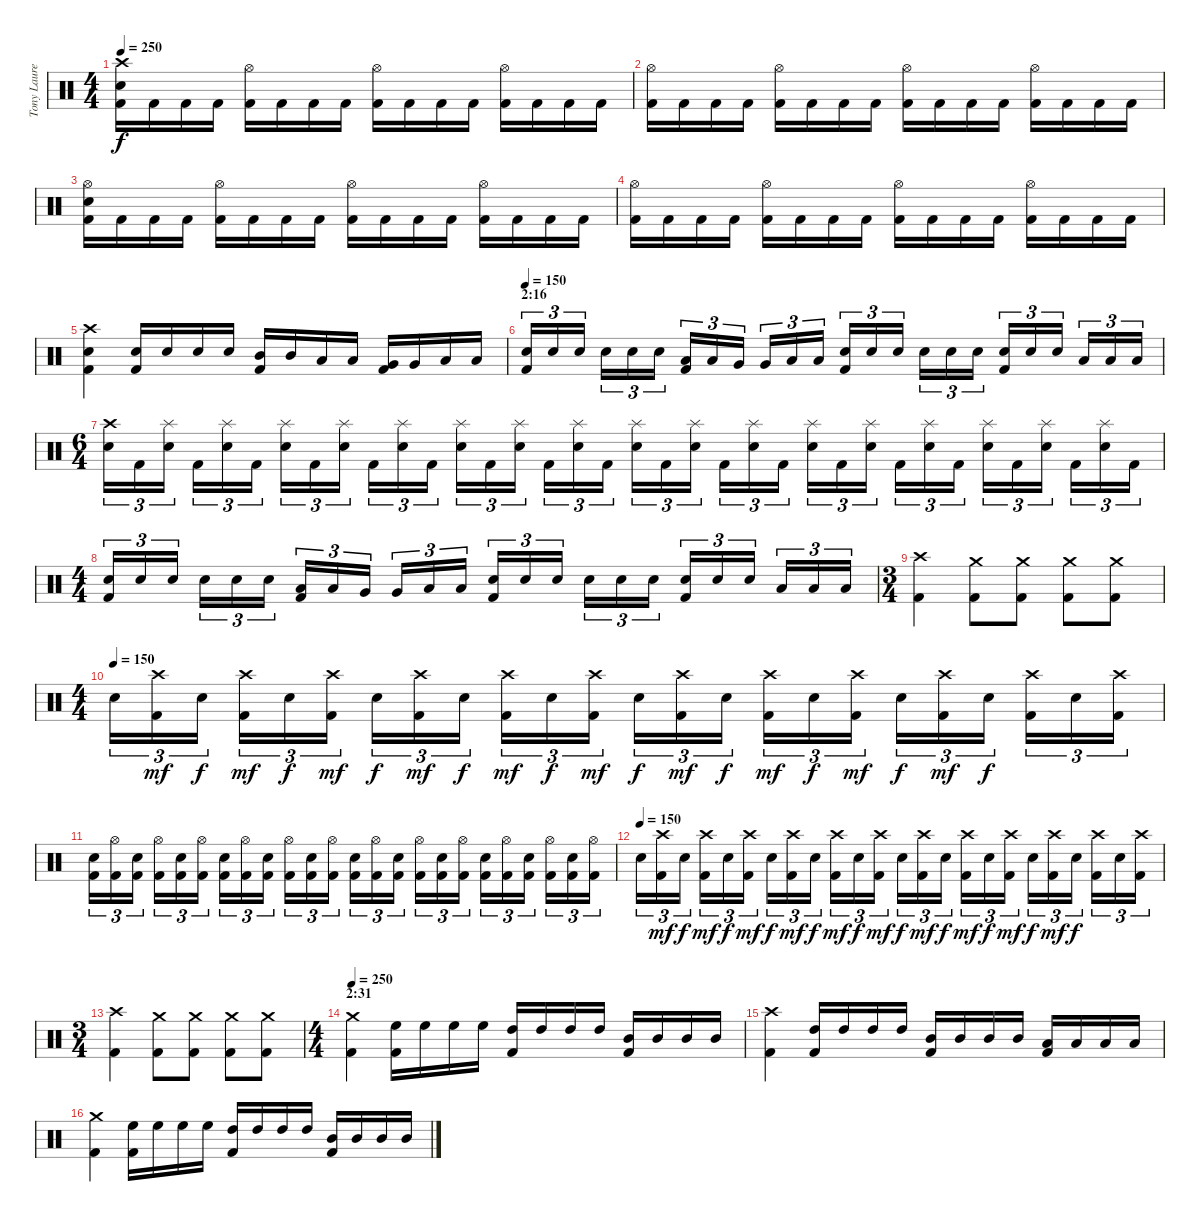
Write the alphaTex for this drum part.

\track ("Tony Laureano" "Tony Laure") {instrument percussion}
\staff {score}
\articulation defaults
\ts (4 4)
\tempo 250
\clef neutral
\ks c
("Crash high (hit)" "Electric Snare (hit)" "Kick (hit) 2").16{dy f} "Kick (hit) 2".16 "Kick (hit) 2".16 "Kick (hit) 2".16 ("Hi-Hat (open)" "Kick (hit) 2").16 "Kick (hit) 2".16 "Kick (hit) 2".16 "Kick (hit) 2".16 ("Hi-Hat (open)" "Kick (hit) 2").16 "Kick (hit) 2".16 "Kick (hit) 2".16 "Kick (hit) 2".16 ("Hi-Hat (open)" "Kick (hit) 2").16 "Kick (hit) 2".16 "Kick (hit) 2".16 "Kick (hit) 2".16 |
("Hi-Hat (open)" "Kick (hit) 2").16 "Kick (hit) 2".16 "Kick (hit) 2".16 "Kick (hit) 2".16 ("Hi-Hat (open)" "Kick (hit) 2").16 "Kick (hit) 2".16 "Kick (hit) 2".16 "Kick (hit) 2".16 ("Hi-Hat (open)" "Kick (hit) 2").16 "Kick (hit) 2".16 "Kick (hit) 2".16 "Kick (hit) 2".16 ("Hi-Hat (open)" "Kick (hit) 2").16 "Kick (hit) 2".16 "Kick (hit) 2".16 "Kick (hit) 2".16 |
("Hi-Hat (open)" "Electric Snare (hit)" "Kick (hit) 2").16 "Kick (hit) 2".16 "Kick (hit) 2".16 "Kick (hit) 2".16 ("Hi-Hat (open)" "Kick (hit) 2").16 "Kick (hit) 2".16 "Kick (hit) 2".16 "Kick (hit) 2".16 ("Hi-Hat (open)" "Kick (hit) 2").16 "Kick (hit) 2".16 "Kick (hit) 2".16 "Kick (hit) 2".16 ("Hi-Hat (open)" "Kick (hit) 2").16 "Kick (hit) 2".16 "Kick (hit) 2".16 "Kick (hit) 2".16 |
("Hi-Hat (open)" "Kick (hit) 2").16 "Kick (hit) 2".16 "Kick (hit) 2".16 "Kick (hit) 2".16 ("Hi-Hat (open)" "Kick (hit) 2").16 "Kick (hit) 2".16 "Kick (hit) 2".16 "Kick (hit) 2".16 ("Hi-Hat (open)" "Kick (hit) 2").16 "Kick (hit) 2".16 "Kick (hit) 2".16 "Kick (hit) 2".16 ("Hi-Hat (open)" "Kick (hit) 2").16 "Kick (hit) 2".16 "Kick (hit) 2".16 "Kick (hit) 2".16 |
("Crash high (hit)" "Electric Snare (hit)" "Kick (hit) 2").4 ("Electric Snare (hit)" "Kick (hit) 2").16 "Electric Snare (hit)".16 "Electric Snare (hit)".16 "Electric Snare (hit)".16 ("Mid Tom (hit)" "Kick (hit) 2").16 "Mid Tom (hit)".16 "Low Tom (hit)".16 "Low Tom (hit)".16 ("Very Low Tom (hit)" "Kick (hit) 2").16 "Very Low Tom (hit)".16 "Low Floor Tom (hit)".16 "Low Floor Tom (hit)".16 |
\section ("" "2:16")
\tempo 150
("Electric Snare (hit)" "Kick (hit) 2").16{tu (3 2)} "Electric Snare (hit)".16{tu (3 2)} "Electric Snare (hit)".16{tu (3 2)} "Electric Snare (hit)".16{tu (3 2)} "Electric Snare (hit)".16{tu (3 2)} "Electric Snare (hit)".16{tu (3 2)} ("Low Tom (hit)" "Kick (hit) 2").16{tu (3 2)} "Low Tom (hit)".16{tu (3 2)} "Very Low Tom (hit)".16{tu (3 2)} "Very Low Tom (hit)".16{tu (3 2)} "Low Floor Tom (hit)".16{tu (3 2)} "Low Floor Tom (hit)".16{tu (3 2)} ("Electric Snare (hit)" "Kick (hit) 2").16{tu (3 2)} "Electric Snare (hit)".16{tu (3 2)} "Electric Snare (hit)".16{tu (3 2)} "Electric Snare (hit)".16{tu (3 2)} "Electric Snare (hit)".16{tu (3 2)} "Electric Snare (hit)".16{tu (3 2)} ("Electric Snare (hit)" "Kick (hit) 2").16{tu (3 2)} "Electric Snare (hit)".16{tu (3 2)} "Electric Snare (hit)".16{tu (3 2)} "Low Floor Tom (hit)".16{tu (3 2)} "Low Floor Tom (hit)".16{tu (3 2)} "Low Floor Tom (hit)".16{tu (3 2)} |
\ts (6 4)
("Crash high (hit)" "Electric Snare (hit)").16{tu (3 2)} "Kick (hit) 2".16{tu (3 2)} ("Splash (hit)" "Electric Snare (hit)").16{tu (3 2)} "Kick (hit) 2".16{tu (3 2)} ("Splash (hit)" "Electric Snare (hit)").16{tu (3 2)} "Kick (hit) 2".16{tu (3 2)} ("Splash (hit)" "Electric Snare (hit)").16{tu (3 2)} "Kick (hit) 2".16{tu (3 2)} ("Splash (hit)" "Electric Snare (hit)").16{tu (3 2)} "Kick (hit) 2".16{tu (3 2)} ("Splash (hit)" "Electric Snare (hit)").16{tu (3 2)} "Kick (hit) 2".16{tu (3 2)} ("Splash (hit)" "Electric Snare (hit)").16{tu (3 2)} "Kick (hit) 2".16{tu (3 2)} ("Splash (hit)" "Electric Snare (hit)").16{tu (3 2)} "Kick (hit) 2".16{tu (3 2)} ("Splash (hit)" "Electric Snare (hit)").16{tu (3 2)} "Kick (hit) 2".16{tu (3 2)} ("Splash (hit)" "Electric Snare (hit)").16{tu (3 2)} "Kick (hit) 2".16{tu (3 2)} ("Splash (hit)" "Electric Snare (hit)").16{tu (3 2)} "Kick (hit) 2".16{tu (3 2)} ("Splash (hit)" "Electric Snare (hit)").16{tu (3 2)} "Kick (hit) 2".16{tu (3 2)} ("Splash (hit)" "Electric Snare (hit)").16{tu (3 2)} "Kick (hit) 2".16{tu (3 2)} ("Splash (hit)" "Electric Snare (hit)").16{tu (3 2)} "Kick (hit) 2".16{tu (3 2)} ("Splash (hit)" "Electric Snare (hit)").16{tu (3 2)} "Kick (hit) 2".16{tu (3 2)} ("Splash (hit)" "Electric Snare (hit)").16{tu (3 2)} "Kick (hit) 2".16{tu (3 2)} ("Splash (hit)" "Electric Snare (hit)").16{tu (3 2)} "Kick (hit) 2".16{tu (3 2)} ("Splash (hit)" "Electric Snare (hit)").16{tu (3 2)} "Kick (hit) 2".16{tu (3 2)} |
\ts (4 4)
("Electric Snare (hit)" "Kick (hit) 2").16{tu (3 2)} "Electric Snare (hit)".16{tu (3 2)} "Electric Snare (hit)".16{tu (3 2)} "Electric Snare (hit)".16{tu (3 2)} "Electric Snare (hit)".16{tu (3 2)} "Electric Snare (hit)".16{tu (3 2)} ("Low Tom (hit)" "Kick (hit) 2").16{tu (3 2)} "Low Tom (hit)".16{tu (3 2)} "Very Low Tom (hit)".16{tu (3 2)} "Very Low Tom (hit)".16{tu (3 2)} "Low Floor Tom (hit)".16{tu (3 2)} "Low Floor Tom (hit)".16{tu (3 2)} ("Electric Snare (hit)" "Kick (hit) 2").16{tu (3 2)} "Electric Snare (hit)".16{tu (3 2)} "Electric Snare (hit)".16{tu (3 2)} "Electric Snare (hit)".16{tu (3 2)} "Electric Snare (hit)".16{tu (3 2)} "Electric Snare (hit)".16{tu (3 2)} ("Electric Snare (hit)" "Kick (hit) 2").16{tu (3 2)} "Electric Snare (hit)".16{tu (3 2)} "Electric Snare (hit)".16{tu (3 2)} "Low Floor Tom (hit)".16{tu (3 2)} "Low Floor Tom (hit)".16{tu (3 2)} "Low Floor Tom (hit)".16{tu (3 2)} |
\ts (3 4)
("Crash high (hit)" "Kick (hit) 2").4 ("Crash medium (hit)" "Kick (hit) 2").8 ("Crash medium (hit)" "Kick (hit) 2").8 ("Crash medium (hit)" "Kick (hit) 2").8 ("Crash medium (hit)" "Kick (hit) 2").8 |
\ts (4 4)
\tempo (150)
"Electric Snare (hit)".16{tu (3 2)} ("Crash high (hit)" "Kick (hit) 2").16{tu (3 2) dy mf} "Electric Snare (hit)".16{tu (3 2) dy f} ("Crash high (hit)" "Kick (hit) 2").16{tu (3 2) dy mf} "Electric Snare (hit)".16{tu (3 2) dy f} ("Crash high (hit)" "Kick (hit) 2").16{tu (3 2) dy mf} "Electric Snare (hit)".16{tu (3 2) dy f} ("Crash high (hit)" "Kick (hit) 2").16{tu (3 2) dy mf} "Electric Snare (hit)".16{tu (3 2) dy f} ("Crash high (hit)" "Kick (hit) 2").16{tu (3 2) dy mf} "Electric Snare (hit)".16{tu (3 2) dy f} ("Crash high (hit)" "Kick (hit) 2").16{tu (3 2) dy mf} "Electric Snare (hit)".16{tu (3 2) dy f} ("Crash high (hit)" "Kick (hit) 2").16{tu (3 2) dy mf} "Electric Snare (hit)".16{tu (3 2) dy f} ("Crash high (hit)" "Kick (hit) 2").16{tu (3 2) dy mf} "Electric Snare (hit)".16{tu (3 2) dy f} ("Crash high (hit)" "Kick (hit) 2").16{tu (3 2) dy mf} "Electric Snare (hit)".16{tu (3 2) dy f} ("Crash high (hit)" "Kick (hit) 2").16{tu (3 2) dy mf} "Electric Snare (hit)".16{tu (3 2) dy f} ("Crash high (hit)" "Kick (hit) 2").16{tu (3 2)} "Electric Snare (hit)".16{tu (3 2)} ("Crash high (hit)" "Kick (hit) 2").16{tu (3 2)} |
("Electric Snare (hit)" "Kick (hit) 2").16{tu (3 2)} ("Hi-Hat (open)" "Kick (hit) 2").16{tu (3 2)} ("Electric Snare (hit)" "Kick (hit) 2").16{tu (3 2)} ("Hi-Hat (open)" "Kick (hit) 2").16{tu (3 2)} ("Electric Snare (hit)" "Kick (hit) 2").16{tu (3 2)} ("Hi-Hat (open)" "Kick (hit) 2").16{tu (3 2)} ("Electric Snare (hit)" "Kick (hit) 2").16{tu (3 2)} ("Hi-Hat (open)" "Kick (hit) 2").16{tu (3 2)} ("Electric Snare (hit)" "Kick (hit) 2").16{tu (3 2)} ("Hi-Hat (open)" "Kick (hit) 2").16{tu (3 2)} ("Electric Snare (hit)" "Kick (hit) 2").16{tu (3 2)} ("Hi-Hat (open)" "Kick (hit) 2").16{tu (3 2)} ("Electric Snare (hit)" "Kick (hit) 2").16{tu (3 2)} ("Hi-Hat (open)" "Kick (hit) 2").16{tu (3 2)} ("Electric Snare (hit)" "Kick (hit) 2").16{tu (3 2)} ("Hi-Hat (open)" "Kick (hit) 2").16{tu (3 2)} ("Electric Snare (hit)" "Kick (hit) 2").16{tu (3 2)} ("Hi-Hat (open)" "Kick (hit) 2").16{tu (3 2)} ("Electric Snare (hit)" "Kick (hit) 2").16{tu (3 2)} ("Hi-Hat (open)" "Kick (hit) 2").16{tu (3 2)} ("Electric Snare (hit)" "Kick (hit) 2").16{tu (3 2)} ("Hi-Hat (open)" "Kick (hit) 2").16{tu (3 2)} ("Electric Snare (hit)" "Kick (hit) 2").16{tu (3 2)} ("Hi-Hat (open)" "Kick (hit) 2").16{tu (3 2)} |
\tempo (150)
"Electric Snare (hit)".16{tu (3 2)} ("Crash high (hit)" "Kick (hit) 2").16{tu (3 2) dy mf} "Electric Snare (hit)".16{tu (3 2) dy f} ("Crash high (hit)" "Kick (hit) 2").16{tu (3 2) dy mf} "Electric Snare (hit)".16{tu (3 2) dy f} ("Crash high (hit)" "Kick (hit) 2").16{tu (3 2) dy mf} "Electric Snare (hit)".16{tu (3 2) dy f} ("Crash high (hit)" "Kick (hit) 2").16{tu (3 2) dy mf} "Electric Snare (hit)".16{tu (3 2) dy f} ("Crash high (hit)" "Kick (hit) 2").16{tu (3 2) dy mf} "Electric Snare (hit)".16{tu (3 2) dy f} ("Crash high (hit)" "Kick (hit) 2").16{tu (3 2) dy mf} "Electric Snare (hit)".16{tu (3 2) dy f} ("Crash high (hit)" "Kick (hit) 2").16{tu (3 2) dy mf} "Electric Snare (hit)".16{tu (3 2) dy f} ("Crash high (hit)" "Kick (hit) 2").16{tu (3 2) dy mf} "Electric Snare (hit)".16{tu (3 2) dy f} ("Crash high (hit)" "Kick (hit) 2").16{tu (3 2) dy mf} "Electric Snare (hit)".16{tu (3 2) dy f} ("Crash high (hit)" "Kick (hit) 2").16{tu (3 2) dy mf} "Electric Snare (hit)".16{tu (3 2) dy f} ("Crash high (hit)" "Kick (hit) 2").16{tu (3 2)} "Electric Snare (hit)".16{tu (3 2)} ("Crash high (hit)" "Kick (hit) 2").16{tu (3 2)} |
\ts (3 4)
("Crash high (hit)" "Kick (hit) 2").4 ("Crash medium (hit)" "Kick (hit) 2").8 ("Crash medium (hit)" "Kick (hit) 2").8 ("Crash medium (hit)" "Kick (hit) 2").8 ("Crash medium (hit)" "Kick (hit) 2").8 |
\ts (4 4)
\section ("" "2:31")
\tempo 250
("Crash medium (hit)" "Kick (hit) 2").4 ("High Floor Tom (hit)" "Kick (hit) 2").16 "High Floor Tom (hit)".16 "High Floor Tom (hit)".16 "High Floor Tom (hit)".16 ("High Tom (hit)" "Kick (hit) 2").16 "High Tom (hit)".16 "High Tom (hit)".16 "High Tom (hit)".16 ("Mid Tom (hit)" "Kick (hit) 2").16 "Mid Tom (hit)".16 "Mid Tom (hit)".16 "Mid Tom (hit)".16 |
("Crash high (hit)" "Kick (hit) 2").4 ("High Tom (hit)" "Kick (hit) 2").16 "High Tom (hit)".16 "High Tom (hit)".16 "High Tom (hit)".16 ("Mid Tom (hit)" "Kick (hit) 2").16 "Mid Tom (hit)".16 "Mid Tom (hit)".16 "Mid Tom (hit)".16 ("Low Tom (hit)" "Kick (hit) 2").16 "Low Tom (hit)".16 "Low Tom (hit)".16 "Low Tom (hit)".16 |
("Crash medium (hit)" "Kick (hit) 2").4 ("High Floor Tom (hit)" "Kick (hit) 2").16 "High Floor Tom (hit)".16 "High Floor Tom (hit)".16 "High Floor Tom (hit)".16 ("High Tom (hit)" "Kick (hit) 2").16 "High Tom (hit)".16 "High Tom (hit)".16 "High Tom (hit)".16 ("Mid Tom (hit)" "Kick (hit) 2").16 "Mid Tom (hit)".16 "Mid Tom (hit)".16 "Mid Tom (hit)".16
